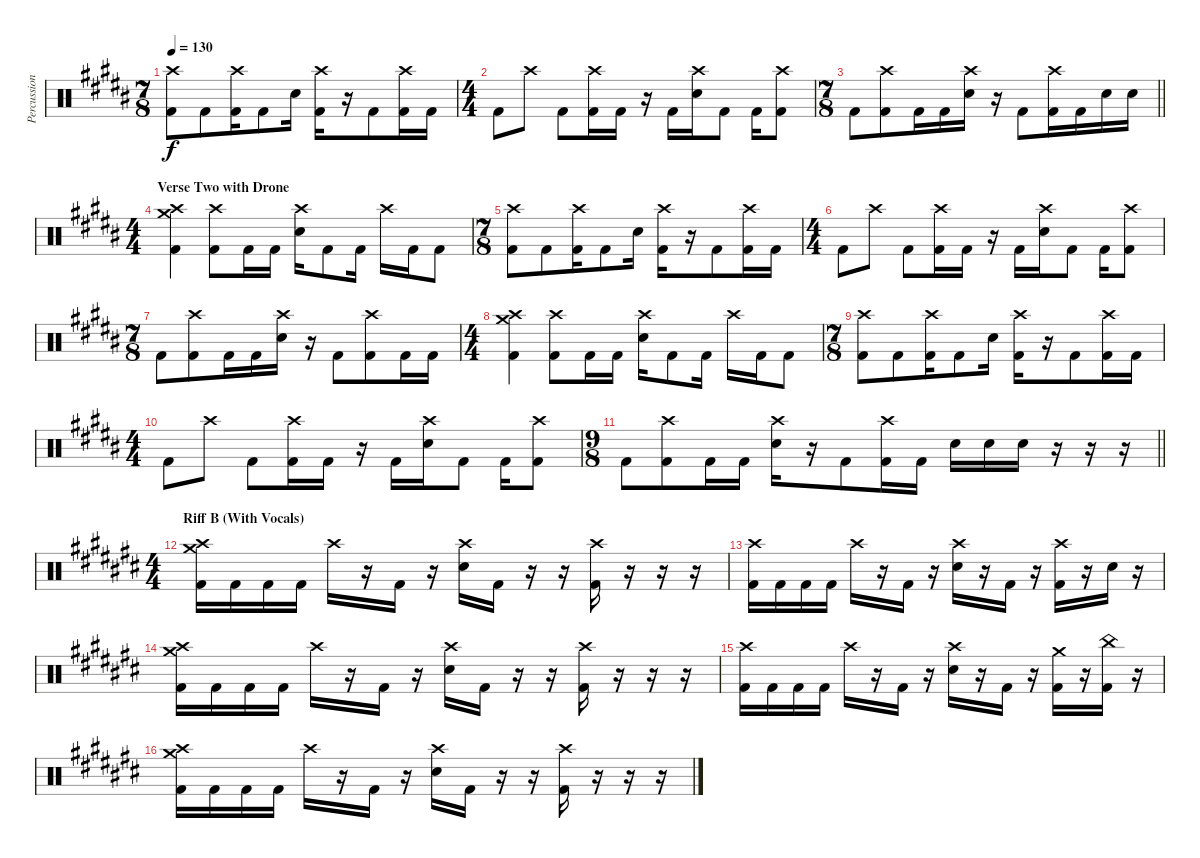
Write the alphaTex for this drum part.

\track ("Percussion" "Percussion") {instrument percussion}
\staff {score}
\articulation defaults
\ts (7 8)
\tempo 130
\clef neutral
\ks g#minor
("Crash high (hit)" "Kick (hit) 2").8{dy f} "Kick (hit) 2".8 ("Crash high (hit)" "Kick (hit) 2").16 "Kick (hit) 2".8 "Electric Snare (hit)".16 ("Crash high (hit)" "Kick (hit) 2").16 r.16 "Kick (hit) 2".8 ("Crash high (hit)" "Kick (hit) 2").16 "Kick (hit) 2".16 |
\ts (4 4)
"Kick (hit) 2".8 "Crash high (hit)".8 "Kick (hit) 2".8 ("Crash high (hit)" "Kick (hit) 2").16 "Kick (hit) 2".16 r.16 "Kick (hit) 2".16 ("Crash high (hit)" "Electric Snare (hit)").16 "Kick (hit) 2".8 "Kick (hit) 2".16 ("Crash high (hit)" "Kick (hit) 2").8 |
\ts (7 8)
\barLineRight lightlight "Kick (hit) 2".8
("Crash high (hit)" "Kick (hit) 2").8 "Kick (hit) 2".16 "Kick (hit) 2".16 ("Crash high (hit)" "Electric Snare (hit)").16 r.16 "Kick (hit) 2".8 ("Crash high (hit)" "Kick (hit) 2").16 "Kick (hit) 2".16 "Electric Snare (hit)".16 "Electric Snare (hit)".16 |
\ts (4 4)
\section ("" "Verse Two with Drone")
("Crash high (hit)" "Crash medium (hit)" "Kick (hit) 2").4 ("Crash high (hit)" "Kick (hit) 2").8 "Kick (hit) 2".16 "Kick (hit) 2".16 ("Crash high (hit)" "Electric Snare (hit)").16 "Kick (hit) 2".8 "Kick (hit) 2".16 "Crash high (hit)".16 "Kick (hit) 2".16 "Kick (hit) 2".8 |
\ts (7 8)
("Crash high (hit)" "Kick (hit) 2").8 "Kick (hit) 2".8 ("Crash high (hit)" "Kick (hit) 2").16 "Kick (hit) 2".8 "Electric Snare (hit)".16 ("Crash high (hit)" "Kick (hit) 2").16 r.16 "Kick (hit) 2".8 ("Crash high (hit)" "Kick (hit) 2").16 "Kick (hit) 2".16 |
\ts (4 4)
"Kick (hit) 2".8 "Crash high (hit)".8 "Kick (hit) 2".8 ("Crash high (hit)" "Kick (hit) 2").16 "Kick (hit) 2".16 r.16 "Kick (hit) 2".16 ("Crash high (hit)" "Electric Snare (hit)").16 "Kick (hit) 2".8 "Kick (hit) 2".16 ("Crash high (hit)" "Kick (hit) 2").8 |
\ts (7 8)
"Kick (hit) 2".8 ("Crash high (hit)" "Kick (hit) 2").8 "Kick (hit) 2".16 "Kick (hit) 2".16 ("Crash high (hit)" "Electric Snare (hit)").16 r.16 "Kick (hit) 2".8 ("Crash high (hit)" "Kick (hit) 2").8 "Kick (hit) 2".16 "Kick (hit) 2".16 |
\ts (4 4)
("Crash high (hit)" "Crash medium (hit)" "Kick (hit) 2").4 ("Crash high (hit)" "Kick (hit) 2").8 "Kick (hit) 2".16 "Kick (hit) 2".16 ("Crash high (hit)" "Electric Snare (hit)").16 "Kick (hit) 2".8 "Kick (hit) 2".16 "Crash high (hit)".16 "Kick (hit) 2".16 "Kick (hit) 2".8 |
\ts (7 8)
("Crash high (hit)" "Kick (hit) 2").8 "Kick (hit) 2".8 ("Crash high (hit)" "Kick (hit) 2").16 "Kick (hit) 2".8 "Electric Snare (hit)".16 ("Crash high (hit)" "Kick (hit) 2").16 r.16 "Kick (hit) 2".8 ("Crash high (hit)" "Kick (hit) 2").16 "Kick (hit) 2".16 |
\ts (4 4)
"Kick (hit) 2".8 "Crash high (hit)".8 "Kick (hit) 2".8 ("Crash high (hit)" "Kick (hit) 2").16 "Kick (hit) 2".16 r.16 "Kick (hit) 2".16 ("Crash high (hit)" "Electric Snare (hit)").16 "Kick (hit) 2".8 "Kick (hit) 2".16 ("Crash high (hit)" "Kick (hit) 2").8 |
\ts (9 8)
\barLineRight lightlight "Kick (hit) 2".8
("Crash high (hit)" "Kick (hit) 2").8 "Kick (hit) 2".16 "Kick (hit) 2".16 ("Crash high (hit)" "Electric Snare (hit)").16 r.16 "Kick (hit) 2".8 ("Crash high (hit)" "Kick (hit) 2").16 "Kick (hit) 2".16 "Electric Snare (hit)".16 "Electric Snare (hit)".16 "Electric Snare (hit)".16 r.16 r.16 r.16 |
\ts (4 4)
\section ("" "Riff B (With Vocals)")
\ks a#minor
("Crash high (hit)" "Crash medium (hit)" "Kick (hit) 2").16 "Kick (hit) 2".16 "Kick (hit) 2".16 "Kick (hit) 2".16 "Crash high (hit)".16 r.16 "Kick (hit) 2".16 r.16 ("Crash high (hit)" "Electric Snare (hit)").16 "Kick (hit) 2".16 r.16 r.16 ("Crash high (hit)" "Kick (hit) 2").16 r.16 r.16 r.16 |
("Crash high (hit)" "Kick (hit) 2").16 "Kick (hit) 2".16 "Kick (hit) 2".16 "Kick (hit) 2".16 "Crash high (hit)".16 r.16 "Kick (hit) 2".16 r.16 ("Crash high (hit)" "Electric Snare (hit)").16 r.16 "Kick (hit) 2".16 r.16 ("Crash high (hit)" "Kick (hit) 2").16 r.16 "Electric Snare (hit)".16 r.16 |
("Crash high (hit)" "Crash medium (hit)" "Kick (hit) 2").16 "Kick (hit) 2".16 "Kick (hit) 2".16 "Kick (hit) 2".16 "Crash high (hit)".16 r.16 "Kick (hit) 2".16 r.16 ("Crash high (hit)" "Electric Snare (hit)").16 "Kick (hit) 2".16 r.16 r.16 ("Crash high (hit)" "Kick (hit) 2").16 r.16 r.16 r.16 |
("Crash high (hit)" "Kick (hit) 2").16 "Kick (hit) 2".16 "Kick (hit) 2".16 "Kick (hit) 2".16 "Crash high (hit)".16 r.16 "Kick (hit) 2".16 r.16 ("Crash high (hit)" "Electric Snare (hit)").16 r.16 "Kick (hit) 2".16 r.16 ("Crash medium (hit)" "Kick (hit) 2").16 r.16 ("China (hit)" "Kick (hit) 2").16 r.16 |
("Crash high (hit)" "Crash medium (hit)" "Kick (hit) 2").16 "Kick (hit) 2".16 "Kick (hit) 2".16 "Kick (hit) 2".16 "Crash high (hit)".16 r.16 "Kick (hit) 2".16 r.16 ("Crash high (hit)" "Electric Snare (hit)").16 "Kick (hit) 2".16 r.16 r.16 ("Crash high (hit)" "Kick (hit) 2").16 r.16 r.16 r.16
